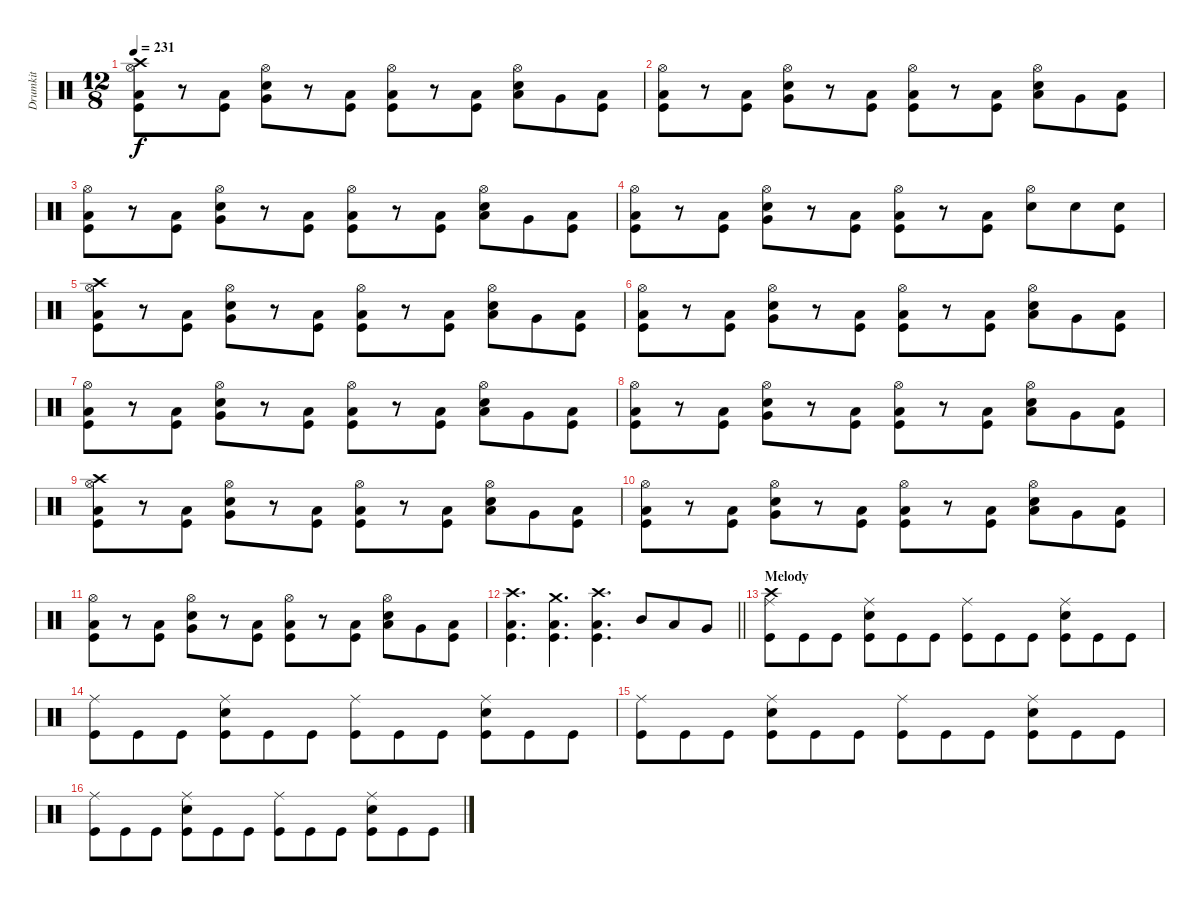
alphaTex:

\track ("Drumkit" "Drumkit") {instrument percussion}
\staff {score}
\articulation defaults
\ts (12 8)
\tempo 231
\clef neutral
\ks c
("Crash high (hit)" "Hi-Hat (open)" "Low Floor Tom (hit)" "Kick (hit)").8{dy f} r.8 ("Low Floor Tom (hit)" "Kick (hit)").8 ("Hi-Hat (open)" "Very Low Tom (hit)" "Snare (hit) 2").8 r.8 ("Low Floor Tom (hit)" "Kick (hit)").8 ("Hi-Hat (open)" "Low Floor Tom (hit)" "Kick (hit)").8 r.8 ("Low Floor Tom (hit)" "Kick (hit)").8 ("Hi-Hat (open)" "Low Tom (hit)" "Snare (hit) 2").8 "Very Low Tom (hit)".8 ("Low Floor Tom (hit)" "Kick (hit)").8 |
("Hi-Hat (open)" "Low Floor Tom (hit)" "Kick (hit)").8 r.8 ("Low Floor Tom (hit)" "Kick (hit)").8 ("Hi-Hat (open)" "Very Low Tom (hit)" "Snare (hit) 2").8 r.8 ("Low Floor Tom (hit)" "Kick (hit)").8 ("Hi-Hat (open)" "Low Floor Tom (hit)" "Kick (hit)").8 r.8 ("Low Floor Tom (hit)" "Kick (hit)").8 ("Hi-Hat (open)" "Low Tom (hit)" "Snare (hit) 2").8 "Very Low Tom (hit)".8 ("Low Floor Tom (hit)" "Kick (hit)").8 |
("Hi-Hat (open)" "Low Floor Tom (hit)" "Kick (hit)").8 r.8 ("Low Floor Tom (hit)" "Kick (hit)").8 ("Hi-Hat (open)" "Very Low Tom (hit)" "Snare (hit) 2").8 r.8 ("Low Floor Tom (hit)" "Kick (hit)").8 ("Hi-Hat (open)" "Low Floor Tom (hit)" "Kick (hit)").8 r.8 ("Low Floor Tom (hit)" "Kick (hit)").8 ("Hi-Hat (open)" "Low Tom (hit)" "Snare (hit) 2").8 "Very Low Tom (hit)".8 ("Low Floor Tom (hit)" "Kick (hit)").8 |
("Hi-Hat (open)" "Low Floor Tom (hit)" "Kick (hit)").8 r.8 ("Low Floor Tom (hit)" "Kick (hit)").8 ("Hi-Hat (open)" "Very Low Tom (hit)" "Snare (hit) 2").8 r.8 ("Low Floor Tom (hit)" "Kick (hit)").8 ("Hi-Hat (open)" "Low Floor Tom (hit)" "Kick (hit)").8 r.8 ("Low Floor Tom (hit)" "Kick (hit)").8 ("Hi-Hat (open)" "Snare (hit) 2").8 "Snare (hit) 2".8 ("Snare (hit) 2" "Kick (hit)").8 |
("Crash high (hit)" "Hi-Hat (open)" "Low Floor Tom (hit)" "Kick (hit)").8 r.8 ("Low Floor Tom (hit)" "Kick (hit)").8 ("Hi-Hat (open)" "Very Low Tom (hit)" "Snare (hit) 2").8 r.8 ("Low Floor Tom (hit)" "Kick (hit)").8 ("Hi-Hat (open)" "Low Floor Tom (hit)" "Kick (hit)").8 r.8 ("Low Floor Tom (hit)" "Kick (hit)").8 ("Hi-Hat (open)" "Low Tom (hit)" "Snare (hit) 2").8 "Very Low Tom (hit)".8 ("Low Floor Tom (hit)" "Kick (hit)").8 |
("Hi-Hat (open)" "Low Floor Tom (hit)" "Kick (hit)").8 r.8 ("Low Floor Tom (hit)" "Kick (hit)").8 ("Hi-Hat (open)" "Very Low Tom (hit)" "Snare (hit) 2").8 r.8 ("Low Floor Tom (hit)" "Kick (hit)").8 ("Hi-Hat (open)" "Low Floor Tom (hit)" "Kick (hit)").8 r.8 ("Low Floor Tom (hit)" "Kick (hit)").8 ("Hi-Hat (open)" "Low Tom (hit)" "Snare (hit) 2").8 "Very Low Tom (hit)".8 ("Low Floor Tom (hit)" "Kick (hit)").8 |
("Hi-Hat (open)" "Low Floor Tom (hit)" "Kick (hit)").8 r.8 ("Low Floor Tom (hit)" "Kick (hit)").8 ("Hi-Hat (open)" "Very Low Tom (hit)" "Snare (hit) 2").8 r.8 ("Low Floor Tom (hit)" "Kick (hit)").8 ("Hi-Hat (open)" "Low Floor Tom (hit)" "Kick (hit)").8 r.8 ("Low Floor Tom (hit)" "Kick (hit)").8 ("Hi-Hat (open)" "Low Tom (hit)" "Snare (hit) 2").8 "Very Low Tom (hit)".8 ("Low Floor Tom (hit)" "Kick (hit)").8 |
("Hi-Hat (open)" "Low Floor Tom (hit)" "Kick (hit)").8 r.8 ("Low Floor Tom (hit)" "Kick (hit)").8 ("Hi-Hat (open)" "Very Low Tom (hit)" "Snare (hit) 2").8 r.8 ("Low Floor Tom (hit)" "Kick (hit)").8 ("Hi-Hat (open)" "Low Floor Tom (hit)" "Kick (hit)").8 r.8 ("Low Floor Tom (hit)" "Kick (hit)").8 ("Hi-Hat (open)" "Low Tom (hit)" "Snare (hit) 2").8 "Very Low Tom (hit)".8 ("Low Floor Tom (hit)" "Kick (hit)").8 |
("Crash high (hit)" "Hi-Hat (open)" "Low Floor Tom (hit)" "Kick (hit)").8 r.8 ("Low Floor Tom (hit)" "Kick (hit)").8 ("Hi-Hat (open)" "Very Low Tom (hit)" "Snare (hit) 2").8 r.8 ("Low Floor Tom (hit)" "Kick (hit)").8 ("Hi-Hat (open)" "Low Floor Tom (hit)" "Kick (hit)").8 r.8 ("Low Floor Tom (hit)" "Kick (hit)").8 ("Hi-Hat (open)" "Low Tom (hit)" "Snare (hit) 2").8 "Very Low Tom (hit)".8 ("Low Floor Tom (hit)" "Kick (hit)").8 |
("Hi-Hat (open)" "Low Floor Tom (hit)" "Kick (hit)").8 r.8 ("Low Floor Tom (hit)" "Kick (hit)").8 ("Hi-Hat (open)" "Very Low Tom (hit)" "Snare (hit) 2").8 r.8 ("Low Floor Tom (hit)" "Kick (hit)").8 ("Hi-Hat (open)" "Low Floor Tom (hit)" "Kick (hit)").8 r.8 ("Low Floor Tom (hit)" "Kick (hit)").8 ("Hi-Hat (open)" "Low Tom (hit)" "Snare (hit) 2").8 "Very Low Tom (hit)".8 ("Low Floor Tom (hit)" "Kick (hit)").8 |
("Hi-Hat (open)" "Low Floor Tom (hit)" "Kick (hit)").8 r.8 ("Low Floor Tom (hit)" "Kick (hit)").8 ("Hi-Hat (open)" "Very Low Tom (hit)" "Snare (hit) 2").8 r.8 ("Low Floor Tom (hit)" "Kick (hit)").8 ("Hi-Hat (open)" "Low Floor Tom (hit)" "Kick (hit)").8 r.8 ("Low Floor Tom (hit)" "Kick (hit)").8 ("Hi-Hat (open)" "Low Tom (hit)" "Snare (hit) 2").8 "Very Low Tom (hit)".8 ("Low Floor Tom (hit)" "Kick (hit)").8 |
\barLineRight lightlight
("Crash high (hit)" "Low Floor Tom (hit)" "Kick (hit)").4{d} ("Crash medium (hit)" "Low Floor Tom (hit)" "Kick (hit)").4{d} ("Crash high (hit)" "Low Floor Tom (hit)" "Kick (hit)").4{d} "Mid Tom (hit)".8 "Low Tom (hit)".8 "Very Low Tom (hit)".8 |
\section ("" "Melody")
("Crash high (hit)" "Ride (middle)" "Kick (hit)").8 "Kick (hit)".8 "Kick (hit)".8 ("Ride (middle)" "Snare (hit) 2" "Kick (hit)").8 "Kick (hit)".8 "Kick (hit)".8 ("Ride (middle)" "Kick (hit)").8 "Kick (hit)".8 "Kick (hit)".8 ("Ride (middle)" "Snare (hit) 2" "Kick (hit)").8 "Kick (hit)".8 "Kick (hit)".8 |
("Ride (middle)" "Kick (hit)").8 "Kick (hit)".8 "Kick (hit)".8 ("Ride (middle)" "Snare (hit) 2" "Kick (hit)").8 "Kick (hit)".8 "Kick (hit)".8 ("Ride (middle)" "Kick (hit)").8 "Kick (hit)".8 "Kick (hit)".8 ("Ride (middle)" "Snare (hit) 2" "Kick (hit)").8 "Kick (hit)".8 "Kick (hit)".8 |
("Ride (middle)" "Kick (hit)").8 "Kick (hit)".8 "Kick (hit)".8 ("Ride (middle)" "Snare (hit) 2" "Kick (hit)").8 "Kick (hit)".8 "Kick (hit)".8 ("Ride (middle)" "Kick (hit)").8 "Kick (hit)".8 "Kick (hit)".8 ("Ride (middle)" "Snare (hit) 2" "Kick (hit)").8 "Kick (hit)".8 "Kick (hit)".8 |
("Ride (middle)" "Kick (hit)").8 "Kick (hit)".8 "Kick (hit)".8 ("Ride (middle)" "Snare (hit) 2" "Kick (hit)").8 "Kick (hit)".8 "Kick (hit)".8 ("Ride (middle)" "Kick (hit)").8 "Kick (hit)".8 "Kick (hit)".8 ("Ride (middle)" "Snare (hit) 2" "Kick (hit)").8 "Kick (hit)".8 "Kick (hit)".8
